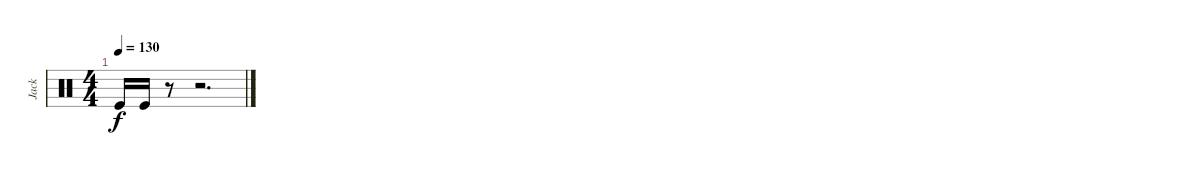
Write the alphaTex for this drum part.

\track ("Jack" "Jack") {instrument percussion}
\staff {score}
\articulation defaults
\ts (4 4)
\tempo 130
\clef neutral
\ks c "Kick (hit)".16{dy f} "Kick (hit)".16
r.8 r.2{d}
